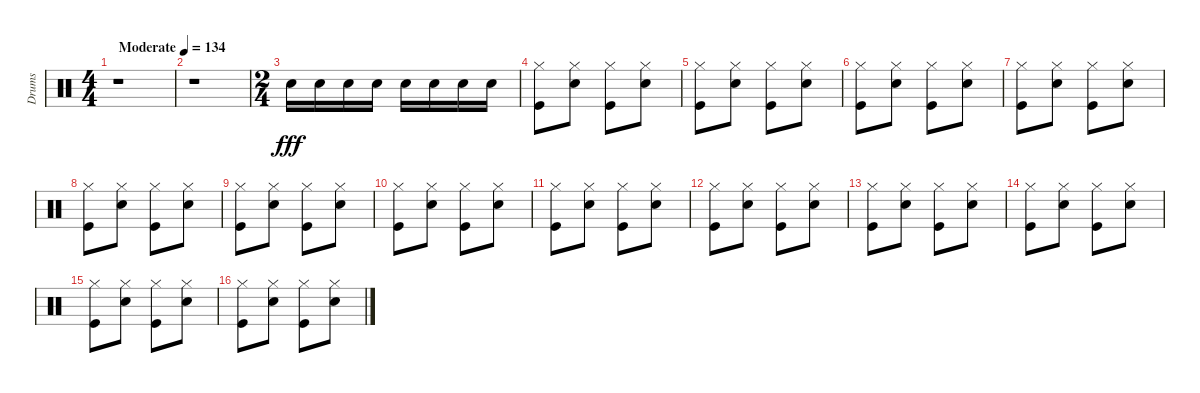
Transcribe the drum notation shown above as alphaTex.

\track ("Drums" "Drums") {instrument percussion}
\staff {score}
\articulation defaults
\ts (4 4)
\tempo (134 "Moderate")
\clef neutral
\ks c
r.1{dy fff} |
r.1 |
\ts (2 4)
"Electric Snare (hit)".16 "Electric Snare (hit)".16 "Electric Snare (hit)".16 "Electric Snare (hit)".16 "Electric Snare (hit)".16 "Electric Snare (hit)".16 "Electric Snare (hit)".16 "Electric Snare (hit)".16 |
("Hi-Hat (closed)" "Kick (hit)").8 ("Hi-Hat (closed)" "Electric Snare (hit)").8 ("Hi-Hat (closed)" "Kick (hit)").8 ("Hi-Hat (closed)" "Electric Snare (hit)").8 |
("Hi-Hat (closed)" "Kick (hit)").8 ("Hi-Hat (closed)" "Electric Snare (hit)").8 ("Hi-Hat (closed)" "Kick (hit)").8 ("Hi-Hat (closed)" "Electric Snare (hit)").8 |
("Hi-Hat (closed)" "Kick (hit)").8 ("Hi-Hat (closed)" "Electric Snare (hit)").8 ("Hi-Hat (closed)" "Kick (hit)").8 ("Hi-Hat (closed)" "Electric Snare (hit)").8 |
("Hi-Hat (closed)" "Kick (hit)").8 ("Hi-Hat (closed)" "Electric Snare (hit)").8 ("Hi-Hat (closed)" "Kick (hit)").8 ("Hi-Hat (closed)" "Electric Snare (hit)").8 |
("Hi-Hat (closed)" "Kick (hit)").8 ("Hi-Hat (closed)" "Electric Snare (hit)").8 ("Hi-Hat (closed)" "Kick (hit)").8 ("Hi-Hat (closed)" "Electric Snare (hit)").8 |
("Hi-Hat (closed)" "Kick (hit)").8 ("Hi-Hat (closed)" "Electric Snare (hit)").8 ("Hi-Hat (closed)" "Kick (hit)").8 ("Hi-Hat (closed)" "Electric Snare (hit)").8 |
("Hi-Hat (closed)" "Kick (hit)").8 ("Hi-Hat (closed)" "Electric Snare (hit)").8 ("Hi-Hat (closed)" "Kick (hit)").8 ("Hi-Hat (closed)" "Electric Snare (hit)").8 |
("Hi-Hat (closed)" "Kick (hit)").8 ("Hi-Hat (closed)" "Electric Snare (hit)").8 ("Hi-Hat (closed)" "Kick (hit)").8 ("Hi-Hat (closed)" "Electric Snare (hit)").8 |
("Hi-Hat (closed)" "Kick (hit)").8 ("Hi-Hat (closed)" "Electric Snare (hit)").8 ("Hi-Hat (closed)" "Kick (hit)").8 ("Hi-Hat (closed)" "Electric Snare (hit)").8 |
("Hi-Hat (closed)" "Kick (hit)").8 ("Hi-Hat (closed)" "Electric Snare (hit)").8 ("Hi-Hat (closed)" "Kick (hit)").8 ("Hi-Hat (closed)" "Electric Snare (hit)").8 |
("Hi-Hat (closed)" "Kick (hit)").8 ("Hi-Hat (closed)" "Electric Snare (hit)").8 ("Hi-Hat (closed)" "Kick (hit)").8 ("Hi-Hat (closed)" "Electric Snare (hit)").8 |
("Hi-Hat (closed)" "Kick (hit)").8 ("Hi-Hat (closed)" "Electric Snare (hit)").8 ("Hi-Hat (closed)" "Kick (hit)").8 ("Hi-Hat (closed)" "Electric Snare (hit)").8 |
("Hi-Hat (closed)" "Kick (hit)").8 ("Hi-Hat (closed)" "Electric Snare (hit)").8 ("Hi-Hat (closed)" "Kick (hit)").8 ("Hi-Hat (closed)" "Electric Snare (hit)").8
